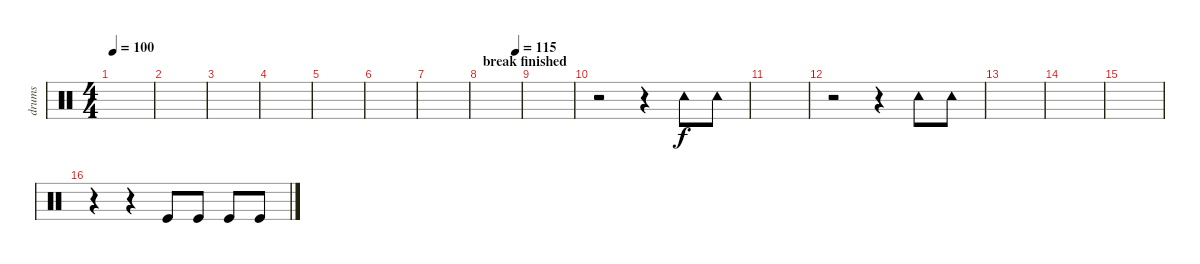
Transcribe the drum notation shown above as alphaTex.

\track ("drums" "drums") {instrument percussion}
\staff {score}
\articulation defaults
\ts (4 4)
\tempo 100
\clef neutral
\ks c
|
|
|
|
|
|
|
\section ("" "break finished")
\tempo (115 0.875)
|
|
r.2 r.4 "Tambourine (hit)".8 "Tambourine (hit)".8 |
|
r.2 r.4 "Tambourine (hit)".8 "Tambourine (hit)".8 |
|
|
|
r.4 r.4 "Kick (hit)".8 "Kick (hit)".8 "Kick (hit)".8 "Kick (hit)".8
